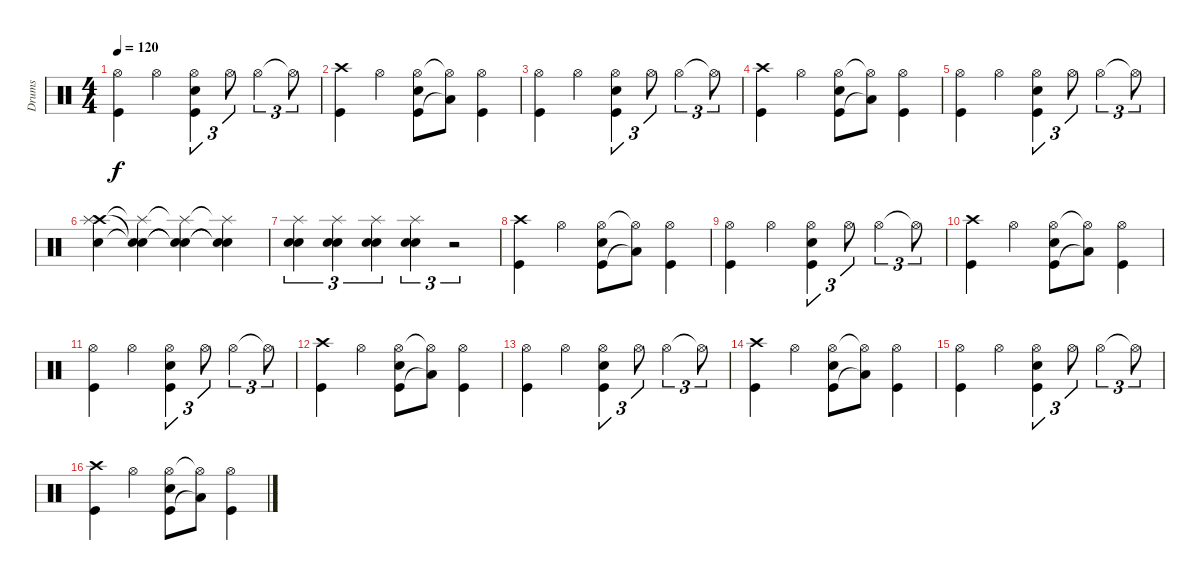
\track ("Drums" "Drums") {instrument percussion}
\staff {score}
\articulation defaults
\ts (4 4)
\tempo 120
\clef neutral
\ks c
("Hi-Hat (open)" "Kick (hit)").4{dy f} "Hi-Hat (open)".4 ("Hi-Hat (open)" "Kick (hit)" "Electric Snare (hit)").4{tu (3 2)} "Hi-Hat (open)".8{tu (3 2)} "Hi-Hat (open)".4{tu (3 2)} "Hi-Hat (open)"{t}.8{tu (3 2)} |
("Crash high (hit)" "Kick (hit)").4 "Hi-Hat (open)".4 ("Hi-Hat (open)" "Kick (hit)" "Electric Snare (hit)").8 ("Hi-Hat (open)"{t} "Low Tom (hit)"{t}).8 ("Hi-Hat (open)" "Kick (hit)").4 |
("Hi-Hat (open)" "Kick (hit)").4 "Hi-Hat (open)".4 ("Hi-Hat (open)" "Kick (hit)" "Electric Snare (hit)").4{tu (3 2)} "Hi-Hat (open)".8{tu (3 2)} "Hi-Hat (open)".4{tu (3 2)} "Hi-Hat (open)"{t}.8{tu (3 2)} |
("Crash high (hit)" "Kick (hit)").4 "Hi-Hat (open)".4 ("Hi-Hat (open)" "Kick (hit)" "Electric Snare (hit)").8 ("Hi-Hat (open)"{t} "Low Tom (hit)"{t}).8 ("Hi-Hat (open)" "Kick (hit)").4 |
("Hi-Hat (open)" "Kick (hit)").4 "Hi-Hat (open)".4 ("Hi-Hat (open)" "Kick (hit)" "Electric Snare (hit)").4{tu (3 2)} "Hi-Hat (open)".8{tu (3 2)} "Hi-Hat (open)".4{tu (3 2)} "Hi-Hat (open)"{t}.8{tu (3 2)} |
("Crash high (hit)" "Snare (hit) 2" "Splash (hit)").4 ("Snare (hit)"{t} "Snare (hit)"{t} "Splash (hit)"{t}).4 ("Snare (hit)"{t} "Snare (hit)"{t} "Splash (hit)"{t}).4 ("Snare (hit)"{t} "Snare (hit)"{t} "Splash (hit)"{t}).4 |
("Electric Snare (hit)" "Snare (hit) 2" "Splash (hit)").4{tu (3 2)} ("Electric Snare (hit)" "Snare (hit) 2" "Splash (hit)").4{tu (3 2)} ("Electric Snare (hit)" "Snare (hit) 2" "Splash (hit)").4{tu (3 2)} ("Electric Snare (hit)" "Snare (hit) 2" "Splash (hit)").4{tu (3 2)} r.2{tu (3 2)} |
("Crash high (hit)" "Kick (hit)").4 "Hi-Hat (open)".4 ("Hi-Hat (open)" "Kick (hit)" "Electric Snare (hit)").8 ("Hi-Hat (open)"{t} "Low Tom (hit)"{t}).8 ("Hi-Hat (open)" "Kick (hit)").4 |
("Hi-Hat (open)" "Kick (hit)").4 "Hi-Hat (open)".4 ("Hi-Hat (open)" "Kick (hit)" "Electric Snare (hit)").4{tu (3 2)} "Hi-Hat (open)".8{tu (3 2)} "Hi-Hat (open)".4{tu (3 2)} "Hi-Hat (open)"{t}.8{tu (3 2)} |
("Crash high (hit)" "Kick (hit)").4 "Hi-Hat (open)".4 ("Hi-Hat (open)" "Kick (hit)" "Electric Snare (hit)").8 ("Hi-Hat (open)"{t} "Low Tom (hit)"{t}).8 ("Hi-Hat (open)" "Kick (hit)").4 |
("Hi-Hat (open)" "Kick (hit)").4 "Hi-Hat (open)".4 ("Hi-Hat (open)" "Kick (hit)" "Electric Snare (hit)").4{tu (3 2)} "Hi-Hat (open)".8{tu (3 2)} "Hi-Hat (open)".4{tu (3 2)} "Hi-Hat (open)"{t}.8{tu (3 2)} |
("Crash high (hit)" "Kick (hit)").4 "Hi-Hat (open)".4 ("Hi-Hat (open)" "Kick (hit)" "Electric Snare (hit)").8 ("Hi-Hat (open)"{t} "Low Tom (hit)"{t}).8 ("Hi-Hat (open)" "Kick (hit)").4 |
("Hi-Hat (open)" "Kick (hit)").4 "Hi-Hat (open)".4 ("Hi-Hat (open)" "Kick (hit)" "Electric Snare (hit)").4{tu (3 2)} "Hi-Hat (open)".8{tu (3 2)} "Hi-Hat (open)".4{tu (3 2)} "Hi-Hat (open)"{t}.8{tu (3 2)} |
("Crash high (hit)" "Kick (hit)").4 "Hi-Hat (open)".4 ("Hi-Hat (open)" "Kick (hit)" "Electric Snare (hit)").8 ("Hi-Hat (open)"{t} "Low Tom (hit)"{t}).8 ("Hi-Hat (open)" "Kick (hit)").4 |
("Hi-Hat (open)" "Kick (hit)").4 "Hi-Hat (open)".4 ("Hi-Hat (open)" "Kick (hit)" "Electric Snare (hit)").4{tu (3 2)} "Hi-Hat (open)".8{tu (3 2)} "Hi-Hat (open)".4{tu (3 2)} "Hi-Hat (open)"{t}.8{tu (3 2)} |
("Crash high (hit)" "Kick (hit)").4 "Hi-Hat (open)".4 ("Hi-Hat (open)" "Kick (hit)" "Electric Snare (hit)").8 ("Hi-Hat (open)"{t} "Low Tom (hit)"{t}).8 ("Hi-Hat (open)" "Kick (hit)").4
